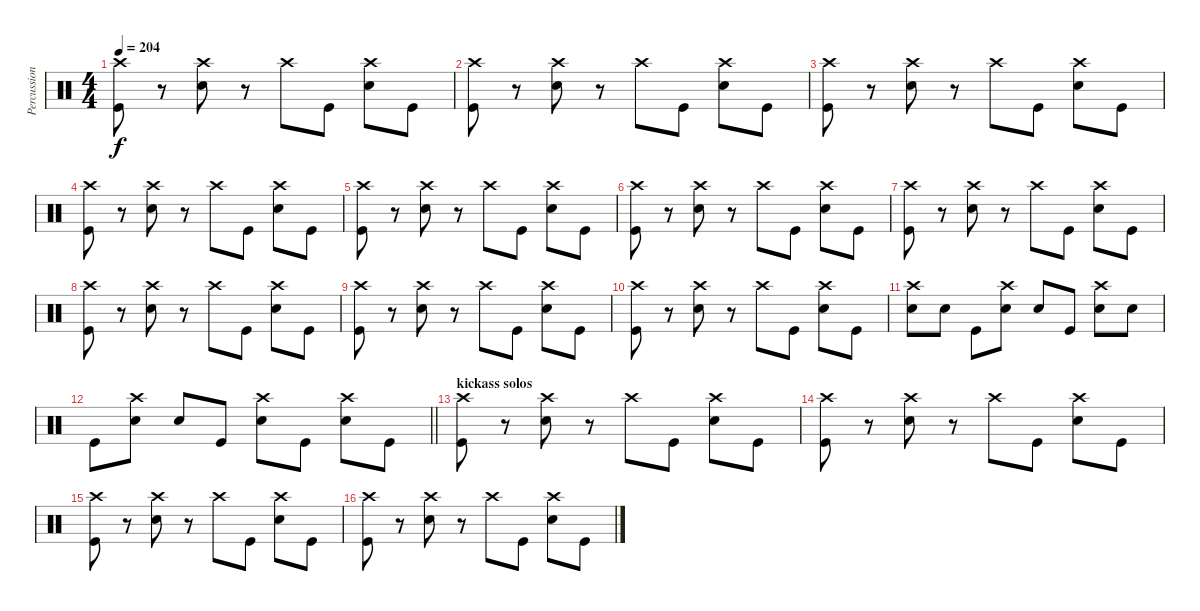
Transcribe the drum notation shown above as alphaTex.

\track ("Percussion" "Percussion") {instrument percussion}
\staff {score}
\articulation defaults
\ts (4 4)
\tempo 204
\clef neutral
\ks c
("Crash high (hit)" "Kick (hit)").8{dy f} r.8 ("Crash high (hit)" "Snare (hit) 2").8 r.8 "Crash high (hit)".8 "Kick (hit)".8 ("Crash high (hit)" "Snare (hit) 2").8 "Kick (hit)".8 |
("Crash high (hit)" "Kick (hit)").8 r.8 ("Crash high (hit)" "Snare (hit) 2").8 r.8 "Crash high (hit)".8 "Kick (hit)".8 ("Crash high (hit)" "Snare (hit) 2").8 "Kick (hit)".8 |
("Crash high (hit)" "Kick (hit)").8 r.8 ("Crash high (hit)" "Snare (hit) 2").8 r.8 "Crash high (hit)".8 "Kick (hit)".8 ("Crash high (hit)" "Snare (hit) 2").8 "Kick (hit)".8 |
("Crash high (hit)" "Kick (hit)").8 r.8 ("Crash high (hit)" "Snare (hit) 2").8 r.8 "Crash high (hit)".8 "Kick (hit)".8 ("Crash high (hit)" "Snare (hit) 2").8 "Kick (hit)".8 |
("Crash high (hit)" "Kick (hit)").8 r.8 ("Crash high (hit)" "Snare (hit) 2").8 r.8 "Crash high (hit)".8 "Kick (hit)".8 ("Crash high (hit)" "Snare (hit) 2").8 "Kick (hit)".8 |
("Crash high (hit)" "Kick (hit)").8 r.8 ("Crash high (hit)" "Snare (hit) 2").8 r.8 "Crash high (hit)".8 "Kick (hit)".8 ("Crash high (hit)" "Snare (hit) 2").8 "Kick (hit)".8 |
("Crash high (hit)" "Kick (hit)").8 r.8 ("Crash high (hit)" "Snare (hit) 2").8 r.8 "Crash high (hit)".8 "Kick (hit)".8 ("Crash high (hit)" "Snare (hit) 2").8 "Kick (hit)".8 |
("Crash high (hit)" "Kick (hit)").8 r.8 ("Crash high (hit)" "Snare (hit) 2").8 r.8 "Crash high (hit)".8 "Kick (hit)".8 ("Crash high (hit)" "Snare (hit) 2").8 "Kick (hit)".8 |
("Crash high (hit)" "Kick (hit)").8 r.8 ("Crash high (hit)" "Snare (hit) 2").8 r.8 "Crash high (hit)".8 "Kick (hit)".8 ("Crash high (hit)" "Snare (hit) 2").8 "Kick (hit)".8 |
("Crash high (hit)" "Kick (hit)").8 r.8 ("Crash high (hit)" "Snare (hit) 2").8 r.8 "Crash high (hit)".8 "Kick (hit)".8 ("Crash high (hit)" "Snare (hit) 2").8 "Kick (hit)".8 |
("Crash high (hit)" "Snare (hit) 2").8 "Snare (hit) 2".8 "Kick (hit)".8 ("Crash high (hit)" "Snare (hit) 2").8 "Snare (hit) 2".8 "Kick (hit)".8 ("Crash high (hit)" "Snare (hit) 2").8 "Snare (hit) 2".8 |
\barLineRight lightlight "Kick (hit)".8
("Crash high (hit)" "Snare (hit) 2").8 "Snare (hit) 2".8 "Kick (hit)".8 ("Crash high (hit)" "Snare (hit) 2").8 "Kick (hit)".8 ("Crash high (hit)" "Snare (hit) 2").8 "Kick (hit)".8 |
\section ("" "kickass solos")
("Crash high (hit)" "Kick (hit)").8 r.8 ("Crash high (hit)" "Snare (hit) 2").8 r.8 "Crash high (hit)".8 "Kick (hit)".8 ("Crash high (hit)" "Snare (hit) 2").8 "Kick (hit)".8 |
("Crash high (hit)" "Kick (hit)").8 r.8 ("Crash high (hit)" "Snare (hit) 2").8 r.8 "Crash high (hit)".8 "Kick (hit)".8 ("Crash high (hit)" "Snare (hit) 2").8 "Kick (hit)".8 |
("Crash high (hit)" "Kick (hit)").8 r.8 ("Crash high (hit)" "Snare (hit) 2").8 r.8 "Crash high (hit)".8 "Kick (hit)".8 ("Crash high (hit)" "Snare (hit) 2").8 "Kick (hit)".8 |
("Crash high (hit)" "Kick (hit)").8 r.8 ("Crash high (hit)" "Snare (hit) 2").8 r.8 "Crash high (hit)".8 "Kick (hit)".8 ("Crash high (hit)" "Snare (hit) 2").8 "Kick (hit)".8
